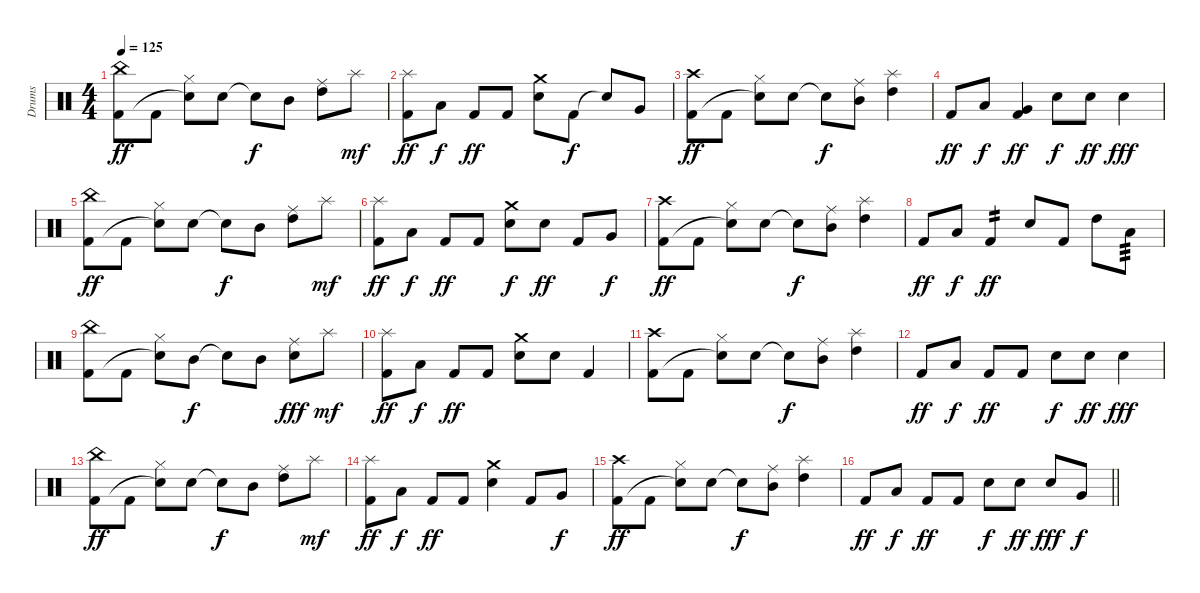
\track ("Drums" "Drums") {instrument percussion}
\staff {score}
\articulation defaults
\ts (4 4)
\section ("" "")
\tempo 125
\clef neutral
\ks c
("China (hit)" "Kick (hit) 2").8{dy ff} "Kick (hit) 2".8 ("Hi-Hat (closed)" "Snare (hit)"{t}).8 "Snare (hit) 2".8 "Snare (hit)"{t}.8{dy f} "Mid Tom (hit)".8 ("Ride (middle)" "High Tom (hit)").8 "Splash (hit)".8{dy mf} |
("Splash (hit)" "Kick (hit) 2").8{dy ff} "Low Tom (hit)".8{dy f} "Kick (hit) 2".8{dy ff} "Kick (hit) 2".8 ("Crash medium (hit)" "Snare (hit) 2").8 "Kick (hit) 2".8{dy f} "Snare (hit)"{t}.8 "Very Low Tom (hit)".8 |
("Crash high (hit)" "Kick (hit) 2").8{dy ff} "Kick (hit) 2".8 ("Hi-Hat (closed)" "Snare (hit)"{t}).8 "Snare (hit) 2".8 "Snare (hit)"{t}.8{dy f} ("Ride (middle)" "Mid Tom (hit)").8 ("Splash (hit)" "High Tom (hit)").4 |
"Kick (hit) 2".8{dy ff} "Low Tom (hit)".8{dy f} ("Very Low Tom (hit)" "Kick (hit) 2").4{dy ff} "Snare (hit) 2".8{dy f} "Snare (hit) 2".8{dy ff} "Snare (hit) 2".4{dy fff} |
("China (hit)" "Kick (hit) 2").8{dy ff} "Kick (hit) 2".8 ("Hi-Hat (closed)" "Snare (hit)"{t}).8 "Snare (hit) 2".8 "Snare (hit)"{t}.8{dy f} "Mid Tom (hit)".8 ("Ride (middle)" "High Tom (hit)").8 "Splash (hit)".8{dy mf} |
("Splash (hit)" "Kick (hit) 2").8{dy ff} "Low Tom (hit)".8{dy f} "Kick (hit) 2".8{dy ff} "Kick (hit) 2".8 ("Crash medium (hit)" "Snare (hit) 2").8{dy f} "Snare (hit) 2".8{dy ff} "Kick (hit) 2".8 "Very Low Tom (hit)".8{dy f} |
("Crash high (hit)" "Kick (hit) 2").8{dy ff} "Kick (hit) 2".8 ("Hi-Hat (closed)" "Snare (hit)"{t}).8 "Snare (hit) 2".8 "Snare (hit)"{t}.8{dy f} ("Ride (middle)" "Mid Tom (hit)").8 ("Splash (hit)" "High Tom (hit)").4 |
"Kick (hit) 2".8{dy ff} "Low Tom (hit)".8{dy f} "Kick (hit) 2".4{tp 2 dy ff} "Snare (hit) 2".8 "Kick (hit) 2".8 "High Tom (hit)".8 "Low Tom (hit)".8{tp 3} |
("China (hit)" "Kick (hit) 2").8 "Kick (hit) 2".8 ("Hi-Hat (closed)" "Snare (hit)"{t}).8 "Mid Tom (hit)".8{dy f} "Snare (hit)"{t}.8 "Mid Tom (hit)".8 ("Ride (middle)" "Snare (hit) 2").8{dy fff} "Splash (hit)".8{dy mf} |
("Splash (hit)" "Kick (hit) 2").8{dy ff} "Low Tom (hit)".8{dy f} "Kick (hit) 2".8{dy ff} "Kick (hit) 2".8 ("Crash medium (hit)" "Snare (hit) 2").8 "Snare (hit) 2".8 "Kick (hit) 2".4 |
("Crash high (hit)" "Kick (hit) 2").8 "Kick (hit) 2".8 ("Hi-Hat (closed)" "Snare (hit)"{t}).8 "Snare (hit) 2".8 "Snare (hit)"{t}.8{dy f} ("Ride (middle)" "Mid Tom (hit)").8 ("Splash (hit)" "High Tom (hit)").4 |
"Kick (hit) 2".8{dy ff} "Low Tom (hit)".8{dy f} "Kick (hit) 2".8{dy ff} "Kick (hit) 2".8 "Snare (hit) 2".8{dy f} "Snare (hit) 2".8{dy ff} "Snare (hit) 2".4{dy fff} |
("China (hit)" "Kick (hit) 2").8{dy ff} "Kick (hit) 2".8 ("Hi-Hat (closed)" "Snare (hit)"{t}).8 "Snare (hit) 2".8 "Snare (hit)"{t}.8{dy f} "Mid Tom (hit)".8 ("Ride (middle)" "High Tom (hit)").8 "Splash (hit)".8{dy mf} |
("Splash (hit)" "Kick (hit) 2").8{dy ff} "Low Tom (hit)".8{dy f} "Kick (hit) 2".8{dy ff} "Kick (hit) 2".8 ("Crash medium (hit)" "Snare (hit) 2").4 "Kick (hit) 2".8 "Very Low Tom (hit)".8{dy f} |
("Crash high (hit)" "Kick (hit) 2").8{dy ff} "Kick (hit) 2".8 ("Hi-Hat (closed)" "Snare (hit)"{t}).8 "Snare (hit) 2".8 "Snare (hit)"{t}.8{dy f} ("Ride (middle)" "Mid Tom (hit)").8 ("Splash (hit)" "High Tom (hit)").4 |
\barLineRight lightlight "Kick (hit) 2".8{dy ff} "Low Tom (hit)".8{dy f} "Kick (hit) 2".8{dy ff} "Kick (hit) 2".8 "Snare (hit) 2".8{dy f} "Snare (hit) 2".8{dy ff} "Snare (hit) 2".8{dy fff} "Very Low Tom (hit)".8{dy f}
